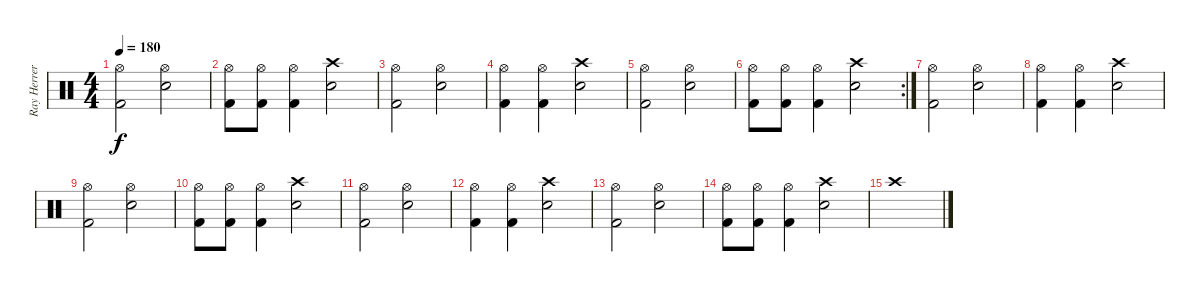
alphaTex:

\track ("Ray Herrera" "Ray Herrer") {instrument percussion}
\staff {score}
\articulation defaults
\ts (4 4)
\tempo 180
\clef neutral
\ks c
("Hi-Hat (open)" "Kick (hit) 2").2{dy f} ("Hi-Hat (open)" "Electric Snare (hit)").2 |
("Hi-Hat (open)" "Kick (hit) 2").8 ("Hi-Hat (open)" "Kick (hit) 2").8 ("Hi-Hat (open)" "Kick (hit) 2").4 ("Crash high (hit)" "Electric Snare (hit)").2 |
("Hi-Hat (open)" "Kick (hit) 2").2 ("Hi-Hat (open)" "Electric Snare (hit)").2 |
("Hi-Hat (open)" "Kick (hit) 2").4 ("Hi-Hat (open)" "Kick (hit) 2").4 ("Crash high (hit)" "Electric Snare (hit)").2 |
("Hi-Hat (open)" "Kick (hit) 2").2 ("Hi-Hat (open)" "Electric Snare (hit)").2 |
\rc 2
("Hi-Hat (open)" "Kick (hit) 2").8 ("Hi-Hat (open)" "Kick (hit) 2").8 ("Hi-Hat (open)" "Kick (hit) 2").4 ("Crash high (hit)" "Electric Snare (hit)").2 |
("Hi-Hat (open)" "Kick (hit) 2").2 ("Hi-Hat (open)" "Electric Snare (hit)").2 |
("Hi-Hat (open)" "Kick (hit) 2").4 ("Hi-Hat (open)" "Kick (hit) 2").4 ("Crash high (hit)" "Electric Snare (hit)").2 |
("Hi-Hat (open)" "Kick (hit) 2").2 ("Hi-Hat (open)" "Electric Snare (hit)").2 |
("Hi-Hat (open)" "Kick (hit) 2").8 ("Hi-Hat (open)" "Kick (hit) 2").8 ("Hi-Hat (open)" "Kick (hit) 2").4 ("Crash high (hit)" "Electric Snare (hit)").2 |
("Hi-Hat (open)" "Kick (hit) 2").2 ("Hi-Hat (open)" "Electric Snare (hit)").2 |
("Hi-Hat (open)" "Kick (hit) 2").4 ("Hi-Hat (open)" "Kick (hit) 2").4 ("Crash high (hit)" "Electric Snare (hit)").2 |
("Hi-Hat (open)" "Kick (hit) 2").2 ("Hi-Hat (open)" "Electric Snare (hit)").2 |
("Hi-Hat (open)" "Kick (hit) 2").8 ("Hi-Hat (open)" "Kick (hit) 2").8 ("Hi-Hat (open)" "Kick (hit) 2").4 ("Crash high (hit)" "Electric Snare (hit)").2 |
"Crash high (hit)".1
